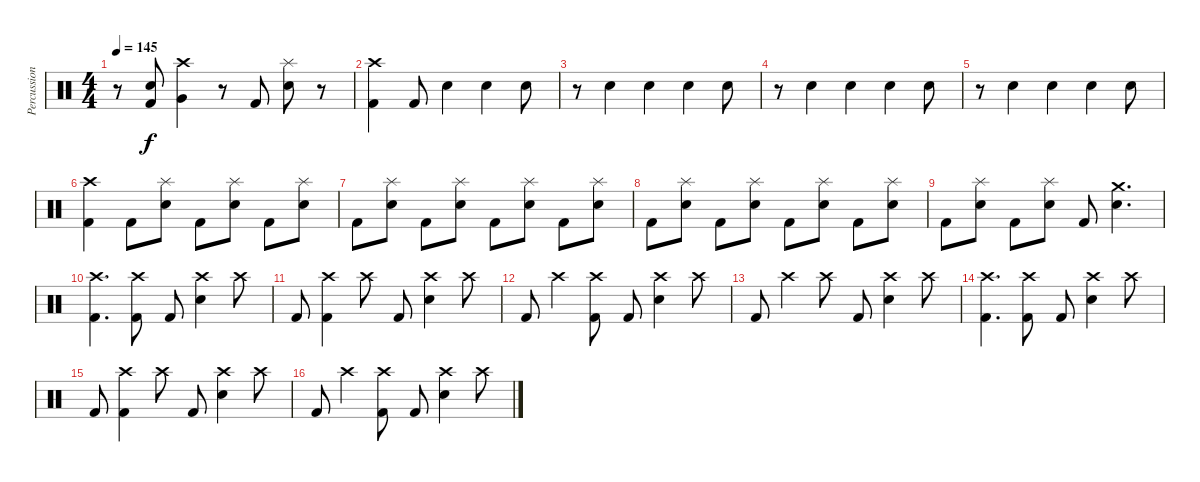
\track ("Percussion" "Percussion") {instrument percussion}
\staff {score}
\articulation defaults
\ts (4 4)
\tempo 145
\clef neutral
\ks c
r.8{dy f} ("Electric Snare (hit)" "Kick (hit) 2").8 ("Crash high (hit)" "Very Low Tom (hit)").4 r.8 "Kick (hit) 2".8 ("Splash (hit)" "Electric Snare (hit)").8 r.8 |
("Crash high (hit)" "Kick (hit) 2").4 "Kick (hit) 2".8 "Electric Snare (hit)".4 "Electric Snare (hit)".4 "Electric Snare (hit)".8 |
r.8 "Electric Snare (hit)".4 "Electric Snare (hit)".4 "Electric Snare (hit)".4 "Electric Snare (hit)".8 |
r.8 "Electric Snare (hit)".4 "Electric Snare (hit)".4 "Electric Snare (hit)".4 "Electric Snare (hit)".8 |
r.8 "Electric Snare (hit)".4 "Electric Snare (hit)".4 "Electric Snare (hit)".4 "Electric Snare (hit)".8 |
("Crash high (hit)" "Kick (hit) 2").4 "Kick (hit) 2".8 ("Splash (hit)" "Electric Snare (hit)").8 "Kick (hit) 2".8 ("Splash (hit)" "Electric Snare (hit)").8 "Kick (hit) 2".8 ("Splash (hit)" "Electric Snare (hit)").8 |
"Kick (hit) 2".8 ("Splash (hit)" "Electric Snare (hit)").8 "Kick (hit) 2".8 ("Splash (hit)" "Electric Snare (hit)").8 "Kick (hit) 2".8 ("Splash (hit)" "Electric Snare (hit)").8 "Kick (hit) 2".8 ("Splash (hit)" "Electric Snare (hit)").8 |
"Kick (hit) 2".8 ("Splash (hit)" "Electric Snare (hit)").8 "Kick (hit) 2".8 ("Splash (hit)" "Electric Snare (hit)").8 "Kick (hit) 2".8 ("Splash (hit)" "Electric Snare (hit)").8 "Kick (hit) 2".8 ("Splash (hit)" "Electric Snare (hit)").8 |
"Kick (hit) 2".8 ("Splash (hit)" "Electric Snare (hit)").8 "Kick (hit) 2".8 ("Splash (hit)" "Electric Snare (hit)").8 "Kick (hit) 2".8 ("Crash medium (hit)" "Electric Snare (hit)").4{d} |
("Crash high (hit)" "Kick (hit) 2").4{d} ("Crash high (hit)" "Kick (hit) 2").8 "Kick (hit) 2".8 ("Crash high (hit)" "Electric Snare (hit)").4 "Crash high (hit)".8 |
"Kick (hit) 2".8 ("Crash high (hit)" "Kick (hit) 2").4 "Crash high (hit)".8 "Kick (hit) 2".8 ("Crash high (hit)" "Electric Snare (hit)").4 "Crash high (hit)".8 |
"Kick (hit) 2".8 "Crash high (hit)".4 ("Crash high (hit)" "Kick (hit) 2").8 "Kick (hit) 2".8 ("Crash high (hit)" "Electric Snare (hit)").4 "Crash high (hit)".8 |
"Kick (hit) 2".8 "Crash high (hit)".4 "Crash high (hit)".8 "Kick (hit) 2".8 ("Crash high (hit)" "Electric Snare (hit)").4 "Crash high (hit)".8 |
("Crash high (hit)" "Kick (hit) 2").4{d} ("Crash high (hit)" "Kick (hit) 2").8 "Kick (hit) 2".8 ("Crash high (hit)" "Electric Snare (hit)").4 "Crash high (hit)".8 |
"Kick (hit) 2".8 ("Crash high (hit)" "Kick (hit) 2").4 "Crash high (hit)".8 "Kick (hit) 2".8 ("Crash high (hit)" "Electric Snare (hit)").4 "Crash high (hit)".8 |
"Kick (hit) 2".8 "Crash high (hit)".4 ("Crash high (hit)" "Kick (hit) 2").8 "Kick (hit) 2".8 ("Crash high (hit)" "Electric Snare (hit)").4 "Crash high (hit)".8
